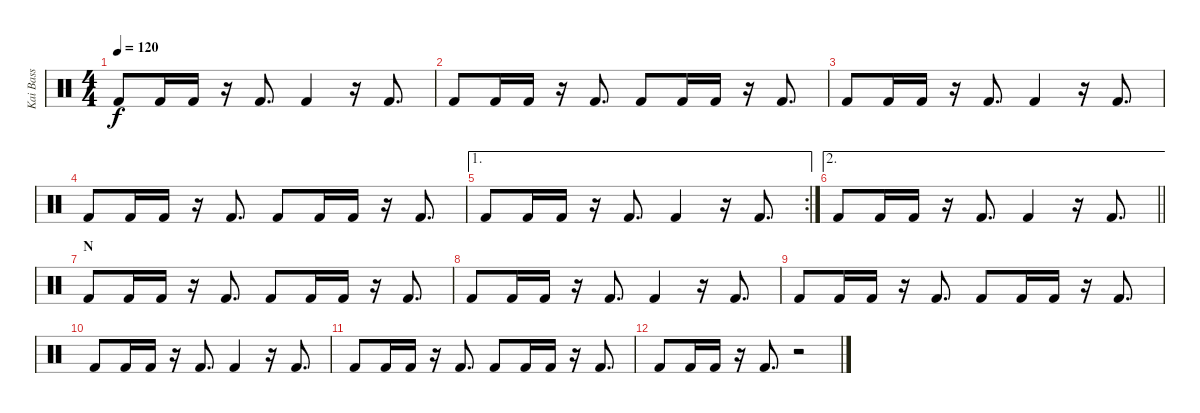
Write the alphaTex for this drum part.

\track ("Kai Bass" "Kai Bass") {instrument percussion}
\staff {score}
\articulation defaults
\ts (4 4)
\tempo 120
\clef neutral
\ks c "Kick (hit) 2".8{dy f} "Kick (hit) 2".16 "Kick (hit) 2".16
r.16 "Kick (hit) 2".8{d} "Kick (hit) 2".4 r.16 "Kick (hit) 2".8{d} |
"Kick (hit) 2".8 "Kick (hit) 2".16 "Kick (hit) 2".16 r.16 "Kick (hit) 2".8{d} "Kick (hit) 2".8 "Kick (hit) 2".16 "Kick (hit) 2".16 r.16 "Kick (hit) 2".8{d} |
"Kick (hit) 2".8 "Kick (hit) 2".16 "Kick (hit) 2".16 r.16 "Kick (hit) 2".8{d} "Kick (hit) 2".4 r.16 "Kick (hit) 2".8{d} |
"Kick (hit) 2".8 "Kick (hit) 2".16 "Kick (hit) 2".16 r.16 "Kick (hit) 2".8{d} "Kick (hit) 2".8 "Kick (hit) 2".16 "Kick (hit) 2".16 r.16 "Kick (hit) 2".8{d} |
\ae 1
\rc 2 "Kick (hit) 2".8 "Kick (hit) 2".16 "Kick (hit) 2".16
r.16 "Kick (hit) 2".8{d} "Kick (hit) 2".4 r.16 "Kick (hit) 2".8{d} |
\ae 2
\barLineRight lightlight "Kick (hit) 2".8 "Kick (hit) 2".16 "Kick (hit) 2".16
r.16 "Kick (hit) 2".8{d} "Kick (hit) 2".4 r.16 "Kick (hit) 2".8{d} |
\section ("" "N")
"Kick (hit) 2".8 "Kick (hit) 2".16 "Kick (hit) 2".16 r.16 "Kick (hit) 2".8{d} "Kick (hit) 2".8 "Kick (hit) 2".16 "Kick (hit) 2".16 r.16 "Kick (hit) 2".8{d} |
"Kick (hit) 2".8 "Kick (hit) 2".16 "Kick (hit) 2".16 r.16 "Kick (hit) 2".8{d} "Kick (hit) 2".4 r.16 "Kick (hit) 2".8{d} |
"Kick (hit) 2".8 "Kick (hit) 2".16 "Kick (hit) 2".16 r.16 "Kick (hit) 2".8{d} "Kick (hit) 2".8 "Kick (hit) 2".16 "Kick (hit) 2".16 r.16 "Kick (hit) 2".8{d} |
"Kick (hit) 2".8 "Kick (hit) 2".16 "Kick (hit) 2".16 r.16 "Kick (hit) 2".8{d} "Kick (hit) 2".4 r.16 "Kick (hit) 2".8{d} |
"Kick (hit) 2".8 "Kick (hit) 2".16 "Kick (hit) 2".16 r.16 "Kick (hit) 2".8{d} "Kick (hit) 2".8 "Kick (hit) 2".16 "Kick (hit) 2".16 r.16 "Kick (hit) 2".8{d} |
"Kick (hit) 2".8 "Kick (hit) 2".16 "Kick (hit) 2".16 r.16 "Kick (hit) 2".8{d} r.2
